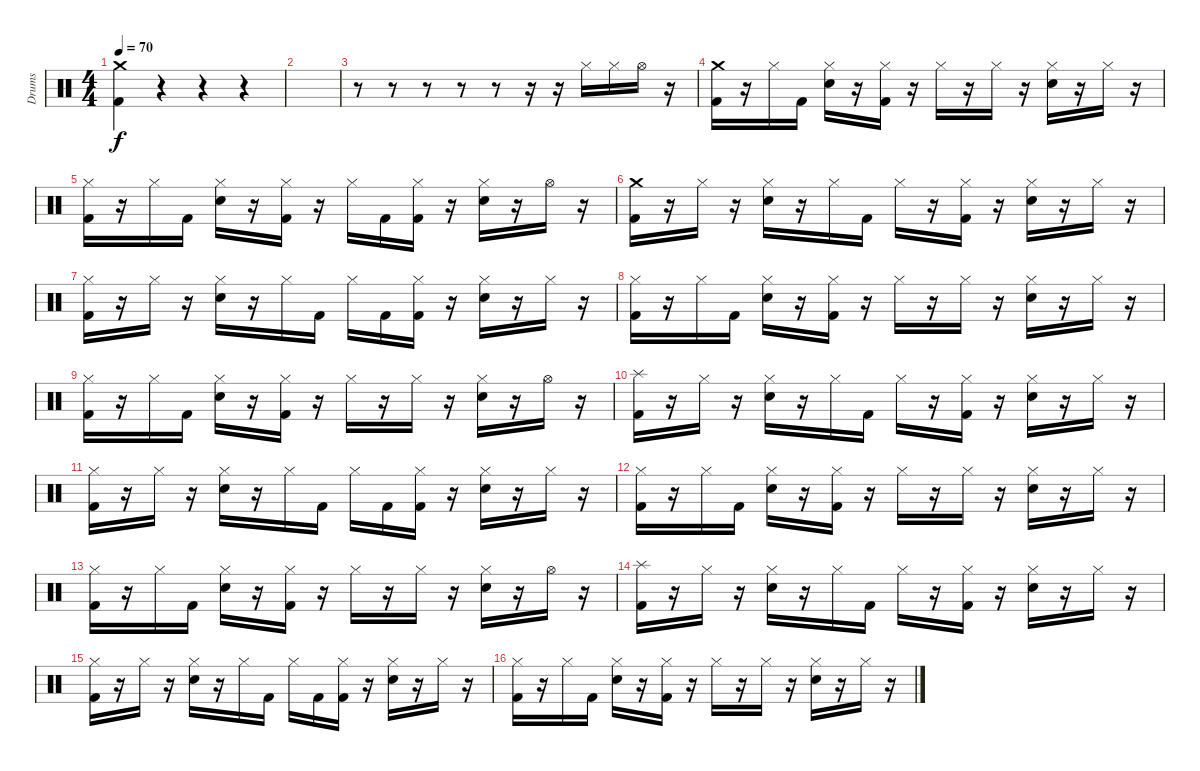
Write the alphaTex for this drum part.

\track ("Drums" "Drums") {instrument percussion}
\staff {score}
\articulation defaults
\ts (4 4)
\tempo 70
\clef neutral
\ks c
("Crash medium (hit)" "Kick (hit) 2").4{dy f} r.4 r.4 r.4 |
|
r.8 r.8 r.8 r.8 r.8 r.16 r.16 "Hi-Hat (closed)".16 "Hi-Hat (closed)".16 "Hi-Hat (open)".16 r.16 |
("Crash medium (hit)" "Kick (hit) 2").16 r.16 "Hi-Hat (closed)".16 "Kick (hit) 2".16 ("Hi-Hat (closed)" "Electric Snare (hit)").16 r.16 ("Hi-Hat (closed)" "Kick (hit) 2").16 r.16 "Hi-Hat (closed)".16 r.16 "Hi-Hat (closed)".16 r.16 ("Hi-Hat (closed)" "Electric Snare (hit)").16 r.16 "Hi-Hat (closed)".16 r.16 |
("Hi-Hat (closed)" "Kick (hit) 2").16 r.16 "Hi-Hat (closed)".16 "Kick (hit) 2".16 ("Hi-Hat (closed)" "Electric Snare (hit)").16 r.16 ("Hi-Hat (closed)" "Kick (hit) 2").16 r.16 "Hi-Hat (closed)".16 "Kick (hit) 2".16 ("Hi-Hat (closed)" "Kick (hit) 2").16 r.16 ("Hi-Hat (closed)" "Electric Snare (hit)").16 r.16 "Hi-Hat (open)".16 r.16 |
("Crash medium (hit)" "Kick (hit) 2").16 r.16 "Hi-Hat (closed)".16 r.16 ("Hi-Hat (closed)" "Electric Snare (hit)").16 r.16 "Hi-Hat (closed)".16 "Kick (hit) 2".16 "Hi-Hat (closed)".16 r.16 ("Hi-Hat (closed)" "Kick (hit) 2").16 r.16 ("Hi-Hat (closed)" "Electric Snare (hit)").16 r.16 "Hi-Hat (closed)".16 r.16 |
("Hi-Hat (closed)" "Kick (hit) 2").16 r.16 "Hi-Hat (closed)".16 r.16 ("Hi-Hat (closed)" "Electric Snare (hit)").16 r.16 "Hi-Hat (closed)".16 "Kick (hit) 2".16 "Hi-Hat (closed)".16 "Kick (hit) 2".16 ("Hi-Hat (closed)" "Kick (hit) 2").16 r.16 ("Hi-Hat (closed)" "Electric Snare (hit)").16 r.16 "Hi-Hat (closed)".16 r.16 |
("Hi-Hat (closed)" "Kick (hit) 2").16 r.16 "Hi-Hat (closed)".16 "Kick (hit) 2".16 ("Hi-Hat (closed)" "Electric Snare (hit)").16 r.16 ("Hi-Hat (closed)" "Kick (hit) 2").16 r.16 "Hi-Hat (closed)".16 r.16 "Hi-Hat (closed)".16 r.16 ("Hi-Hat (closed)" "Electric Snare (hit)").16 r.16 "Hi-Hat (closed)".16 r.16 |
("Hi-Hat (closed)" "Kick (hit) 2").16 r.16 "Hi-Hat (closed)".16 "Kick (hit) 2".16 ("Hi-Hat (closed)" "Electric Snare (hit)").16 r.16 ("Hi-Hat (closed)" "Kick (hit) 2").16 r.16 "Hi-Hat (closed)".16 r.16 "Hi-Hat (closed)".16 r.16 ("Hi-Hat (closed)" "Electric Snare (hit)").16 r.16 "Hi-Hat (open)".16 r.16 |
("Splash (hit)" "Kick (hit) 2").16 r.16 "Hi-Hat (closed)".16 r.16 ("Hi-Hat (closed)" "Electric Snare (hit)").16 r.16 "Hi-Hat (closed)".16 "Kick (hit) 2".16 "Hi-Hat (closed)".16 r.16 ("Hi-Hat (closed)" "Kick (hit) 2").16 r.16 ("Hi-Hat (closed)" "Electric Snare (hit)").16 r.16 "Hi-Hat (closed)".16 r.16 |
("Hi-Hat (closed)" "Kick (hit) 2").16 r.16 "Hi-Hat (closed)".16 r.16 ("Hi-Hat (closed)" "Electric Snare (hit)").16 r.16 "Hi-Hat (closed)".16 "Kick (hit) 2".16 "Hi-Hat (closed)".16 "Kick (hit) 2".16 ("Hi-Hat (closed)" "Kick (hit) 2").16 r.16 ("Hi-Hat (closed)" "Electric Snare (hit)").16 r.16 "Hi-Hat (closed)".16 r.16 |
("Hi-Hat (closed)" "Kick (hit) 2").16 r.16 "Hi-Hat (closed)".16 "Kick (hit) 2".16 ("Hi-Hat (closed)" "Electric Snare (hit)").16 r.16 ("Hi-Hat (closed)" "Kick (hit) 2").16 r.16 "Hi-Hat (closed)".16 r.16 "Hi-Hat (closed)".16 r.16 ("Hi-Hat (closed)" "Electric Snare (hit)").16 r.16 "Hi-Hat (closed)".16 r.16 |
("Hi-Hat (closed)" "Kick (hit) 2").16 r.16 "Hi-Hat (closed)".16 "Kick (hit) 2".16 ("Hi-Hat (closed)" "Electric Snare (hit)").16 r.16 ("Hi-Hat (closed)" "Kick (hit) 2").16 r.16 "Hi-Hat (closed)".16 r.16 "Hi-Hat (closed)".16 r.16 ("Hi-Hat (closed)" "Electric Snare (hit)").16 r.16 "Hi-Hat (open)".16 r.16 |
("Splash (hit)" "Kick (hit) 2").16 r.16 "Hi-Hat (closed)".16 r.16 ("Hi-Hat (closed)" "Electric Snare (hit)").16 r.16 "Hi-Hat (closed)".16 "Kick (hit) 2".16 "Hi-Hat (closed)".16 r.16 ("Hi-Hat (closed)" "Kick (hit) 2").16 r.16 ("Hi-Hat (closed)" "Electric Snare (hit)").16 r.16 "Hi-Hat (closed)".16 r.16 |
("Hi-Hat (closed)" "Kick (hit) 2").16 r.16 "Hi-Hat (closed)".16 r.16 ("Hi-Hat (closed)" "Electric Snare (hit)").16 r.16 "Hi-Hat (closed)".16 "Kick (hit) 2".16 "Hi-Hat (closed)".16 "Kick (hit) 2".16 ("Hi-Hat (closed)" "Kick (hit) 2").16 r.16 ("Hi-Hat (closed)" "Electric Snare (hit)").16 r.16 "Hi-Hat (closed)".16 r.16 |
("Hi-Hat (closed)" "Kick (hit) 2").16 r.16 "Hi-Hat (closed)".16 "Kick (hit) 2".16 ("Hi-Hat (closed)" "Electric Snare (hit)").16 r.16 ("Hi-Hat (closed)" "Kick (hit) 2").16 r.16 "Hi-Hat (closed)".16 r.16 "Hi-Hat (closed)".16 r.16 ("Hi-Hat (closed)" "Electric Snare (hit)").16 r.16 "Hi-Hat (closed)".16 r.16
